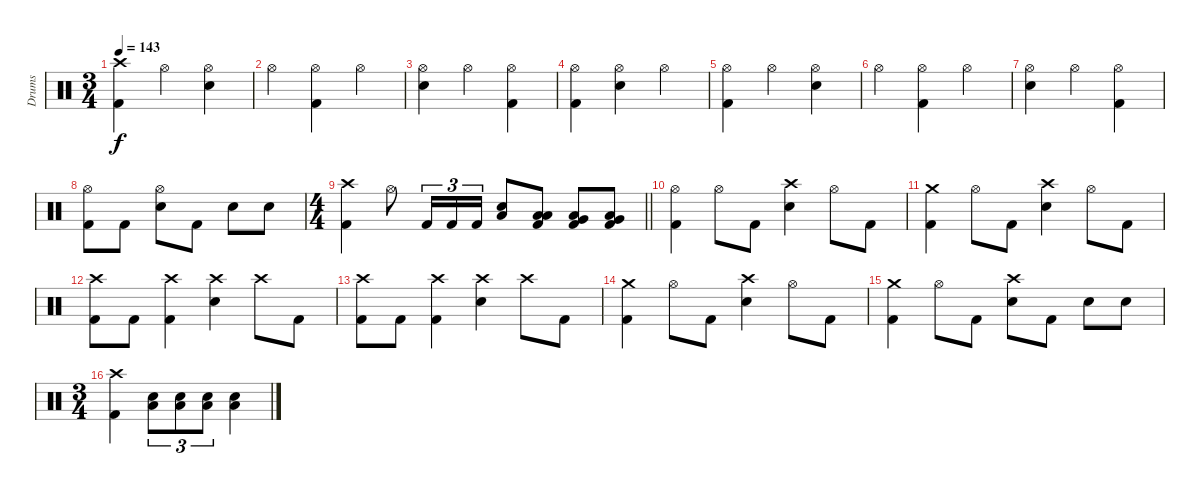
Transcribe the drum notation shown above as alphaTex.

\track ("Drums" "Drums") {instrument percussion}
\staff {score}
\articulation defaults
\ts (3 4)
\tempo 143
\clef neutral
\ks c
("Crash high (hit)" "Kick (hit) 2").4{dy f} "Hi-Hat (open)".4 ("Hi-Hat (open)" "Electric Snare (hit)").4 |
"Hi-Hat (open)".4 ("Hi-Hat (open)" "Kick (hit) 2").4 "Hi-Hat (open)".4 |
("Hi-Hat (open)" "Electric Snare (hit)").4 "Hi-Hat (open)".4 ("Hi-Hat (open)" "Kick (hit) 2").4 |
("Hi-Hat (open)" "Kick (hit) 2").4 ("Hi-Hat (open)" "Electric Snare (hit)").4 "Hi-Hat (open)".4 |
("Hi-Hat (open)" "Kick (hit) 2").4 "Hi-Hat (open)".4 ("Hi-Hat (open)" "Electric Snare (hit)").4 |
"Hi-Hat (open)".4 ("Hi-Hat (open)" "Kick (hit) 2").4 "Hi-Hat (open)".4 |
("Hi-Hat (open)" "Electric Snare (hit)").4 "Hi-Hat (open)".4 ("Hi-Hat (open)" "Kick (hit) 2").4 |
("Hi-Hat (open)" "Kick (hit) 2").8 "Kick (hit) 2".8 ("Hi-Hat (open)" "Electric Snare (hit)").8 "Kick (hit) 2".8 "Electric Snare (hit)".8 "Electric Snare (hit)".8 |
\ts (4 4)
\barLineRight lightlight
("Crash high (hit)" "Kick (hit) 2").4 "Hi-Hat (open)".8 "Kick (hit) 2".16{tu (3 2)} "Kick (hit) 2".16{tu (3 2)} "Kick (hit) 2".16{tu (3 2)} ("Electric Snare (hit)" "Low Floor Tom (hit)").8 ("Low Tom (hit)" "Low Floor Tom (hit)" "Kick (hit) 2").8 ("Very Low Tom (hit)" "Low Floor Tom (hit)" "Kick (hit) 2").8 ("Very Low Tom (hit)" "Low Floor Tom (hit)" "Kick (hit) 2").8 |
("Hi-Hat (open)" "Kick (hit) 2").4 "Hi-Hat (open)".8 "Kick (hit) 2".8 ("Crash high (hit)" "Electric Snare (hit)").4 "Hi-Hat (open)".8 "Kick (hit) 2".8 |
("Crash medium (hit)" "Kick (hit) 2").4 "Hi-Hat (open)".8 "Kick (hit) 2".8 ("Crash high (hit)" "Electric Snare (hit)").4 "Hi-Hat (open)".8 "Kick (hit) 2".8 |
("Crash high (hit)" "Kick (hit) 2").8 "Kick (hit) 2".8 ("Crash high (hit)" "Kick (hit) 2").4 ("Crash high (hit)" "Electric Snare (hit)").4 "Crash high (hit)".8 "Kick (hit) 2".8 |
("Crash high (hit)" "Kick (hit) 2").8 "Kick (hit) 2".8 ("Crash high (hit)" "Kick (hit) 2").4 ("Crash high (hit)" "Electric Snare (hit)").4 "Crash high (hit)".8 "Kick (hit) 2".8 |
("Crash medium (hit)" "Kick (hit) 2").4 "Hi-Hat (open)".8 "Kick (hit) 2".8 ("Crash high (hit)" "Electric Snare (hit)").4 "Hi-Hat (open)".8 "Kick (hit) 2".8 |
("Crash medium (hit)" "Kick (hit) 2").4 "Hi-Hat (open)".8 "Kick (hit) 2".8 ("Crash high (hit)" "Electric Snare (hit)").8 "Kick (hit) 2".8 "Electric Snare (hit)".8 "Electric Snare (hit)".8 |
\ts (3 4)
("Crash high (hit)" "Kick (hit) 2").4 ("Electric Snare (hit)" "Low Floor Tom (hit)").8{tu (3 2)} ("Electric Snare (hit)" "Low Floor Tom (hit)").8{tu (3 2)} ("Electric Snare (hit)" "Low Floor Tom (hit)").8{tu (3 2)} ("Electric Snare (hit)" "Low Floor Tom (hit)").4
